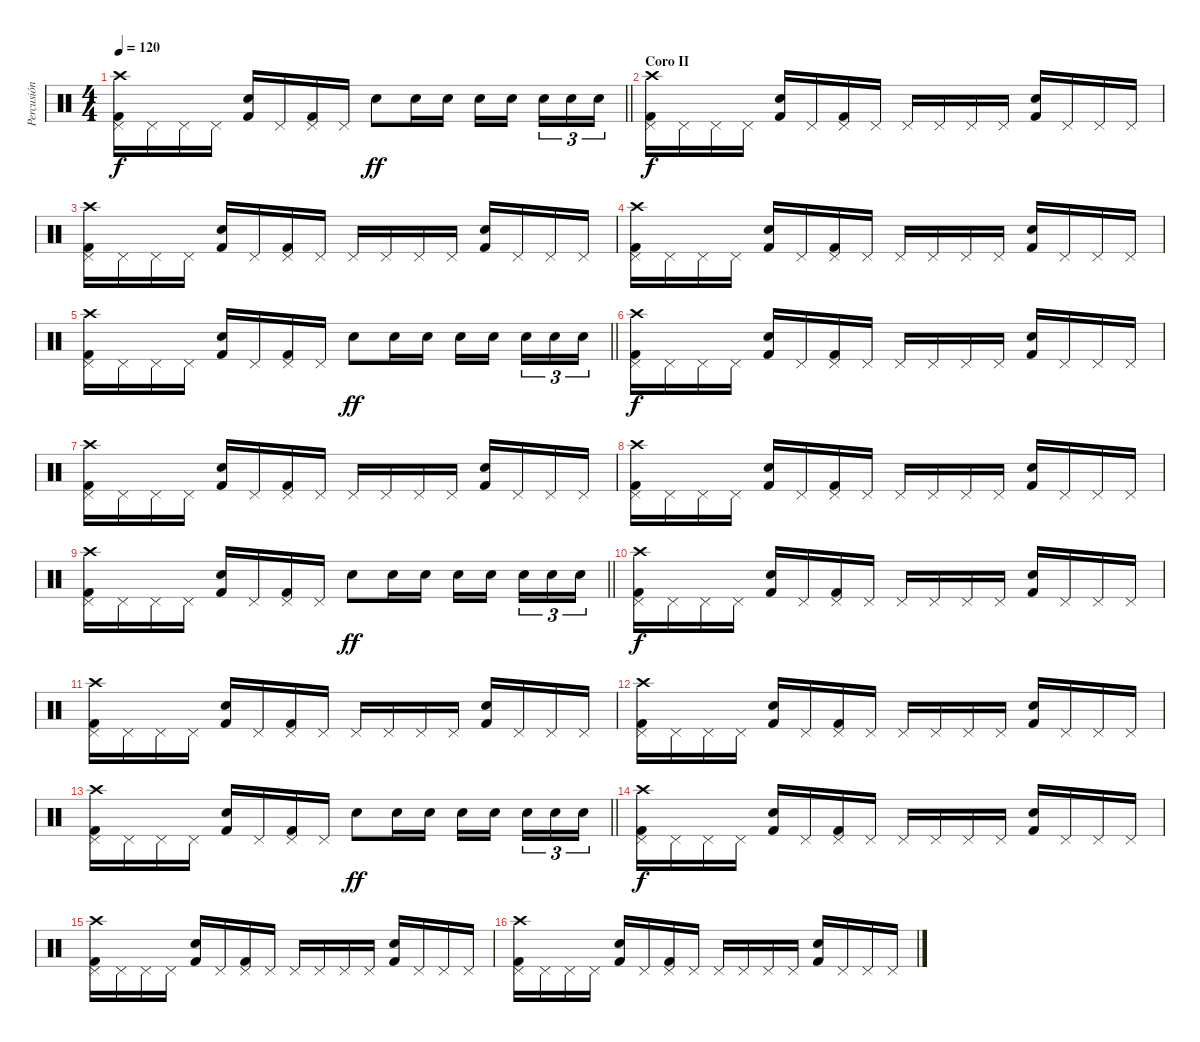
\track ("Percusión" "Percusión") {instrument percussion}
\staff {score}
\articulation defaults
\ts (4 4)
\tempo 120
\clef neutral
\barLineRight lightlight
\ks c
("Pedal Hi-Hat (hit)" "Kick (hit) 2" "Crash high (hit)").16{dy f} "Pedal Hi-Hat (hit)".16 "Pedal Hi-Hat (hit)".16 "Pedal Hi-Hat (hit)".16 ("Snare (hit) 2" "Kick (hit) 2").16 "Pedal Hi-Hat (hit)".16 ("Pedal Hi-Hat (hit)" "Kick (hit) 2").16 "Pedal Hi-Hat (hit)".16 "Snare (hit) 2".8{dy ff} "Snare (hit) 2".16 "Snare (hit) 2".16 "Snare (hit) 2".16 "Snare (hit) 2".16{beam splitsecondary} "Snare (hit) 2".16{tu (3 2)} "Snare (hit) 2".16{tu (3 2)} "Snare (hit) 2".16{tu (3 2)} |
\section ("" "Coro II")
("Pedal Hi-Hat (hit)" "Kick (hit) 2" "Crash high (hit)").16{dy f} "Pedal Hi-Hat (hit)".16 "Pedal Hi-Hat (hit)".16 "Pedal Hi-Hat (hit)".16 ("Snare (hit) 2" "Kick (hit) 2").16 "Pedal Hi-Hat (hit)".16 ("Pedal Hi-Hat (hit)" "Kick (hit) 2").16 "Pedal Hi-Hat (hit)".16 "Pedal Hi-Hat (hit)".16 "Pedal Hi-Hat (hit)".16 "Pedal Hi-Hat (hit)".16 "Pedal Hi-Hat (hit)".16 ("Snare (hit) 2" "Kick (hit) 2").16 "Pedal Hi-Hat (hit)".16 "Pedal Hi-Hat (hit)".16 "Pedal Hi-Hat (hit)".16 |
("Pedal Hi-Hat (hit)" "Kick (hit) 2" "Crash high (hit)").16 "Pedal Hi-Hat (hit)".16 "Pedal Hi-Hat (hit)".16 "Pedal Hi-Hat (hit)".16 ("Snare (hit) 2" "Kick (hit) 2").16 "Pedal Hi-Hat (hit)".16 ("Pedal Hi-Hat (hit)" "Kick (hit) 2").16 "Pedal Hi-Hat (hit)".16 "Pedal Hi-Hat (hit)".16 "Pedal Hi-Hat (hit)".16 "Pedal Hi-Hat (hit)".16 "Pedal Hi-Hat (hit)".16 ("Snare (hit) 2" "Kick (hit) 2").16 "Pedal Hi-Hat (hit)".16 "Pedal Hi-Hat (hit)".16 "Pedal Hi-Hat (hit)".16 |
("Pedal Hi-Hat (hit)" "Kick (hit) 2" "Crash high (hit)").16 "Pedal Hi-Hat (hit)".16 "Pedal Hi-Hat (hit)".16 "Pedal Hi-Hat (hit)".16 ("Snare (hit) 2" "Kick (hit) 2").16 "Pedal Hi-Hat (hit)".16 ("Pedal Hi-Hat (hit)" "Kick (hit) 2").16 "Pedal Hi-Hat (hit)".16 "Pedal Hi-Hat (hit)".16 "Pedal Hi-Hat (hit)".16 "Pedal Hi-Hat (hit)".16 "Pedal Hi-Hat (hit)".16 ("Snare (hit) 2" "Kick (hit) 2").16 "Pedal Hi-Hat (hit)".16 "Pedal Hi-Hat (hit)".16 "Pedal Hi-Hat (hit)".16 |
\barLineRight lightlight
("Pedal Hi-Hat (hit)" "Kick (hit) 2" "Crash high (hit)").16 "Pedal Hi-Hat (hit)".16 "Pedal Hi-Hat (hit)".16 "Pedal Hi-Hat (hit)".16 ("Snare (hit) 2" "Kick (hit) 2").16 "Pedal Hi-Hat (hit)".16 ("Pedal Hi-Hat (hit)" "Kick (hit) 2").16 "Pedal Hi-Hat (hit)".16 "Snare (hit) 2".8{dy ff} "Snare (hit) 2".16 "Snare (hit) 2".16 "Snare (hit) 2".16 "Snare (hit) 2".16{beam splitsecondary} "Snare (hit) 2".16{tu (3 2)} "Snare (hit) 2".16{tu (3 2)} "Snare (hit) 2".16{tu (3 2)} |
("Pedal Hi-Hat (hit)" "Kick (hit) 2" "Crash high (hit)").16{dy f} "Pedal Hi-Hat (hit)".16 "Pedal Hi-Hat (hit)".16 "Pedal Hi-Hat (hit)".16 ("Snare (hit) 2" "Kick (hit) 2").16 "Pedal Hi-Hat (hit)".16 ("Pedal Hi-Hat (hit)" "Kick (hit) 2").16 "Pedal Hi-Hat (hit)".16 "Pedal Hi-Hat (hit)".16 "Pedal Hi-Hat (hit)".16 "Pedal Hi-Hat (hit)".16 "Pedal Hi-Hat (hit)".16 ("Snare (hit) 2" "Kick (hit) 2").16 "Pedal Hi-Hat (hit)".16 "Pedal Hi-Hat (hit)".16 "Pedal Hi-Hat (hit)".16 |
("Pedal Hi-Hat (hit)" "Kick (hit) 2" "Crash high (hit)").16 "Pedal Hi-Hat (hit)".16 "Pedal Hi-Hat (hit)".16 "Pedal Hi-Hat (hit)".16 ("Snare (hit) 2" "Kick (hit) 2").16 "Pedal Hi-Hat (hit)".16 ("Pedal Hi-Hat (hit)" "Kick (hit) 2").16 "Pedal Hi-Hat (hit)".16 "Pedal Hi-Hat (hit)".16 "Pedal Hi-Hat (hit)".16 "Pedal Hi-Hat (hit)".16 "Pedal Hi-Hat (hit)".16 ("Snare (hit) 2" "Kick (hit) 2").16 "Pedal Hi-Hat (hit)".16 "Pedal Hi-Hat (hit)".16 "Pedal Hi-Hat (hit)".16 |
("Pedal Hi-Hat (hit)" "Kick (hit) 2" "Crash high (hit)").16 "Pedal Hi-Hat (hit)".16 "Pedal Hi-Hat (hit)".16 "Pedal Hi-Hat (hit)".16 ("Snare (hit) 2" "Kick (hit) 2").16 "Pedal Hi-Hat (hit)".16 ("Pedal Hi-Hat (hit)" "Kick (hit) 2").16 "Pedal Hi-Hat (hit)".16 "Pedal Hi-Hat (hit)".16 "Pedal Hi-Hat (hit)".16 "Pedal Hi-Hat (hit)".16 "Pedal Hi-Hat (hit)".16 ("Snare (hit) 2" "Kick (hit) 2").16 "Pedal Hi-Hat (hit)".16 "Pedal Hi-Hat (hit)".16 "Pedal Hi-Hat (hit)".16 |
\barLineRight lightlight
("Pedal Hi-Hat (hit)" "Kick (hit) 2" "Crash high (hit)").16 "Pedal Hi-Hat (hit)".16 "Pedal Hi-Hat (hit)".16 "Pedal Hi-Hat (hit)".16 ("Snare (hit) 2" "Kick (hit) 2").16 "Pedal Hi-Hat (hit)".16 ("Pedal Hi-Hat (hit)" "Kick (hit) 2").16 "Pedal Hi-Hat (hit)".16 "Snare (hit) 2".8{dy ff} "Snare (hit) 2".16 "Snare (hit) 2".16 "Snare (hit) 2".16 "Snare (hit) 2".16{beam splitsecondary} "Snare (hit) 2".16{tu (3 2)} "Snare (hit) 2".16{tu (3 2)} "Snare (hit) 2".16{tu (3 2)} |
("Pedal Hi-Hat (hit)" "Kick (hit) 2" "Crash high (hit)").16{dy f} "Pedal Hi-Hat (hit)".16 "Pedal Hi-Hat (hit)".16 "Pedal Hi-Hat (hit)".16 ("Snare (hit) 2" "Kick (hit) 2").16 "Pedal Hi-Hat (hit)".16 ("Pedal Hi-Hat (hit)" "Kick (hit) 2").16 "Pedal Hi-Hat (hit)".16 "Pedal Hi-Hat (hit)".16 "Pedal Hi-Hat (hit)".16 "Pedal Hi-Hat (hit)".16 "Pedal Hi-Hat (hit)".16 ("Snare (hit) 2" "Kick (hit) 2").16 "Pedal Hi-Hat (hit)".16 "Pedal Hi-Hat (hit)".16 "Pedal Hi-Hat (hit)".16 |
("Pedal Hi-Hat (hit)" "Kick (hit) 2" "Crash high (hit)").16 "Pedal Hi-Hat (hit)".16 "Pedal Hi-Hat (hit)".16 "Pedal Hi-Hat (hit)".16 ("Snare (hit) 2" "Kick (hit) 2").16 "Pedal Hi-Hat (hit)".16 ("Pedal Hi-Hat (hit)" "Kick (hit) 2").16 "Pedal Hi-Hat (hit)".16 "Pedal Hi-Hat (hit)".16 "Pedal Hi-Hat (hit)".16 "Pedal Hi-Hat (hit)".16 "Pedal Hi-Hat (hit)".16 ("Snare (hit) 2" "Kick (hit) 2").16 "Pedal Hi-Hat (hit)".16 "Pedal Hi-Hat (hit)".16 "Pedal Hi-Hat (hit)".16 |
("Pedal Hi-Hat (hit)" "Kick (hit) 2" "Crash high (hit)").16 "Pedal Hi-Hat (hit)".16 "Pedal Hi-Hat (hit)".16 "Pedal Hi-Hat (hit)".16 ("Snare (hit) 2" "Kick (hit) 2").16 "Pedal Hi-Hat (hit)".16 ("Pedal Hi-Hat (hit)" "Kick (hit) 2").16 "Pedal Hi-Hat (hit)".16 "Pedal Hi-Hat (hit)".16 "Pedal Hi-Hat (hit)".16 "Pedal Hi-Hat (hit)".16 "Pedal Hi-Hat (hit)".16 ("Snare (hit) 2" "Kick (hit) 2").16 "Pedal Hi-Hat (hit)".16 "Pedal Hi-Hat (hit)".16 "Pedal Hi-Hat (hit)".16 |
\barLineRight lightlight
("Pedal Hi-Hat (hit)" "Kick (hit) 2" "Crash high (hit)").16 "Pedal Hi-Hat (hit)".16 "Pedal Hi-Hat (hit)".16 "Pedal Hi-Hat (hit)".16 ("Snare (hit) 2" "Kick (hit) 2").16 "Pedal Hi-Hat (hit)".16 ("Pedal Hi-Hat (hit)" "Kick (hit) 2").16 "Pedal Hi-Hat (hit)".16 "Snare (hit) 2".8{dy ff} "Snare (hit) 2".16 "Snare (hit) 2".16 "Snare (hit) 2".16 "Snare (hit) 2".16{beam splitsecondary} "Snare (hit) 2".16{tu (3 2)} "Snare (hit) 2".16{tu (3 2)} "Snare (hit) 2".16{tu (3 2)} |
("Pedal Hi-Hat (hit)" "Kick (hit) 2" "Crash high (hit)").16{dy f} "Pedal Hi-Hat (hit)".16 "Pedal Hi-Hat (hit)".16 "Pedal Hi-Hat (hit)".16 ("Snare (hit) 2" "Kick (hit) 2").16 "Pedal Hi-Hat (hit)".16 ("Pedal Hi-Hat (hit)" "Kick (hit) 2").16 "Pedal Hi-Hat (hit)".16 "Pedal Hi-Hat (hit)".16 "Pedal Hi-Hat (hit)".16 "Pedal Hi-Hat (hit)".16 "Pedal Hi-Hat (hit)".16 ("Snare (hit) 2" "Kick (hit) 2").16 "Pedal Hi-Hat (hit)".16 "Pedal Hi-Hat (hit)".16 "Pedal Hi-Hat (hit)".16 |
("Pedal Hi-Hat (hit)" "Kick (hit) 2" "Crash high (hit)").16 "Pedal Hi-Hat (hit)".16 "Pedal Hi-Hat (hit)".16 "Pedal Hi-Hat (hit)".16 ("Snare (hit) 2" "Kick (hit) 2").16 "Pedal Hi-Hat (hit)".16 ("Pedal Hi-Hat (hit)" "Kick (hit) 2").16 "Pedal Hi-Hat (hit)".16 "Pedal Hi-Hat (hit)".16 "Pedal Hi-Hat (hit)".16 "Pedal Hi-Hat (hit)".16 "Pedal Hi-Hat (hit)".16 ("Snare (hit) 2" "Kick (hit) 2").16 "Pedal Hi-Hat (hit)".16 "Pedal Hi-Hat (hit)".16 "Pedal Hi-Hat (hit)".16 |
("Pedal Hi-Hat (hit)" "Kick (hit) 2" "Crash high (hit)").16 "Pedal Hi-Hat (hit)".16 "Pedal Hi-Hat (hit)".16 "Pedal Hi-Hat (hit)".16 ("Snare (hit) 2" "Kick (hit) 2").16 "Pedal Hi-Hat (hit)".16 ("Pedal Hi-Hat (hit)" "Kick (hit) 2").16 "Pedal Hi-Hat (hit)".16 "Pedal Hi-Hat (hit)".16 "Pedal Hi-Hat (hit)".16 "Pedal Hi-Hat (hit)".16 "Pedal Hi-Hat (hit)".16 ("Snare (hit) 2" "Kick (hit) 2").16 "Pedal Hi-Hat (hit)".16 "Pedal Hi-Hat (hit)".16 "Pedal Hi-Hat (hit)".16
